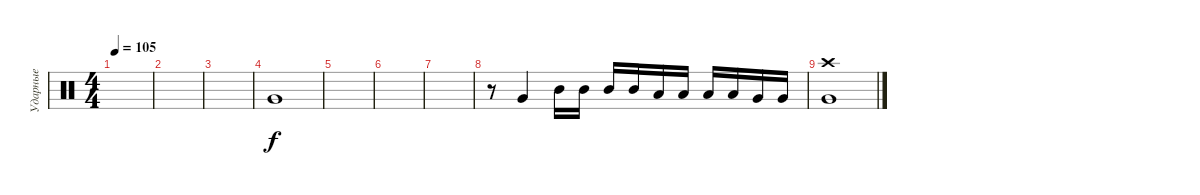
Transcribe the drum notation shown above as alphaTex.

\track ("Ударные" "Ударные") {instrument percussion}
\staff {score}
\articulation defaults
\ts (4 4)
\tempo 105
\clef neutral
\ks c
|
|
|
"Very Low Tom (hit)".1 |
|
|
|
r.8 "Very Low Tom (hit)".4 "Mid Tom (hit)".16 "Mid Tom (hit)".16 "Mid Tom (hit)".16 "Mid Tom (hit)".16 "Low Tom (hit)".16 "Low Tom (hit)".16 "Low Tom (hit)".16 "Low Tom (hit)".16 "Very Low Tom (hit)".16 "Very Low Tom (hit)".16 |
("Very Low Tom (hit)" "Crash high (hit)").1
